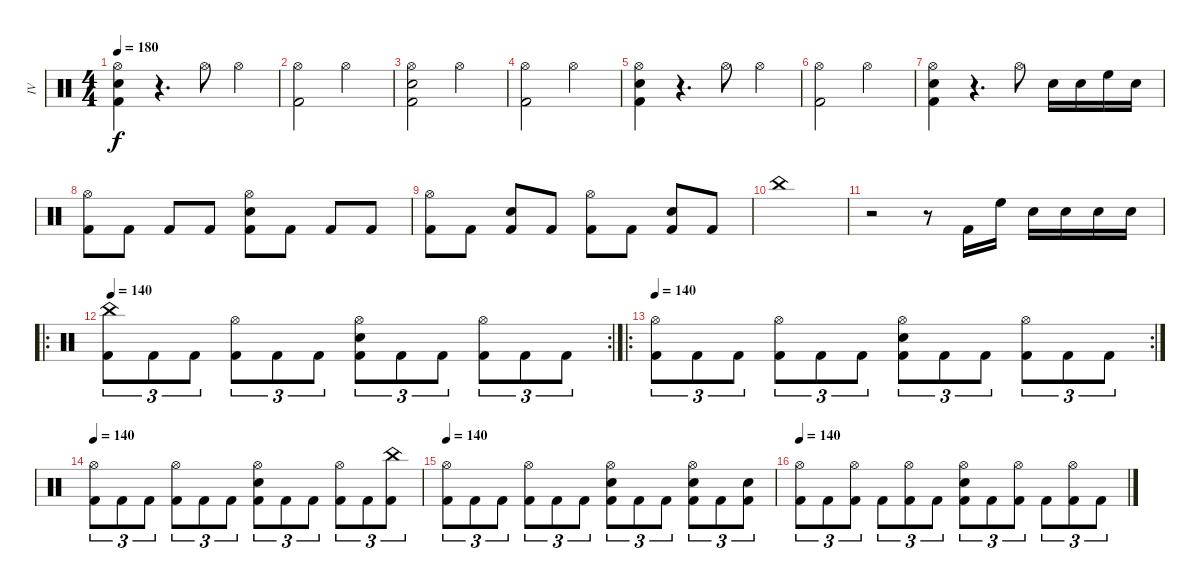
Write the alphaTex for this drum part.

\track ("IV" "IV") {instrument percussion}
\staff {score}
\articulation defaults
\ts (4 4)
\tempo 180
\clef neutral
\ks c
("Hi-Hat (open)" "Snare (hit) 2" "Kick (hit) 2").4{dy f} r.4{d} "Hi-Hat (open)".8 "Hi-Hat (open)".4 |
("Hi-Hat (open)" "Kick (hit) 2").2 "Hi-Hat (open)".2 |
("Hi-Hat (open)" "Snare (hit) 2" "Kick (hit) 2").2 "Hi-Hat (open)".2 |
("Hi-Hat (open)" "Kick (hit) 2").2 "Hi-Hat (open)".2 |
("Hi-Hat (open)" "Snare (hit) 2" "Kick (hit) 2").4 r.4{d} "Hi-Hat (open)".8 "Hi-Hat (open)".4 |
("Hi-Hat (open)" "Kick (hit) 2").2 "Hi-Hat (open)".2 |
("Hi-Hat (open)" "Snare (hit) 2" "Kick (hit) 2").4 r.4{d} "Hi-Hat (open)".8 "Snare (hit) 2".16 "Snare (hit) 2".16 "High Floor Tom (hit)".16 "Snare (hit) 2".16 |
("Hi-Hat (open)" "Kick (hit) 2").8 "Kick (hit) 2".8 "Kick (hit) 2".8 "Kick (hit) 2".8 ("Hi-Hat (open)" "Snare (hit) 2" "Kick (hit) 2").8 "Kick (hit) 2".8 "Kick (hit) 2".8 "Kick (hit) 2".8 |
("Hi-Hat (open)" "Kick (hit) 2").8 "Kick (hit) 2".8 ("Snare (hit) 2" "Kick (hit) 2").8 "Kick (hit) 2".8 ("Hi-Hat (open)" "Kick (hit) 2").8 "Kick (hit) 2".8 ("Snare (hit) 2" "Kick (hit) 2").8 "Kick (hit) 2".8 |
"China (hit)".1 |
r.2 r.8 "Kick (hit) 2".16 "High Floor Tom (hit)".16 "Snare (hit) 2".16 "Snare (hit) 2".16 "Snare (hit) 2".16 "Snare (hit) 2".16 |
\ro
\rc 2
\tempo 140
("China (hit)" "Kick (hit) 2").8{tu (3 2)} "Kick (hit) 2".8{tu (3 2)} "Kick (hit) 2".8{tu (3 2)} ("Hi-Hat (open)" "Kick (hit) 2").8{tu (3 2)} "Kick (hit) 2".8{tu (3 2)} "Kick (hit) 2".8{tu (3 2)} ("Hi-Hat (open)" "Snare (hit) 2" "Kick (hit) 2").8{tu (3 2)} "Kick (hit) 2".8{tu (3 2)} "Kick (hit) 2".8{tu (3 2)} ("Hi-Hat (open)" "Kick (hit) 2").8{tu (3 2)} "Kick (hit) 2".8{tu (3 2)} "Kick (hit) 2".8{tu (3 2)} |
\ro
\rc 2
\tempo 140
("Hi-Hat (open)" "Kick (hit) 2").8{tu (3 2)} "Kick (hit) 2".8{tu (3 2)} "Kick (hit) 2".8{tu (3 2)} ("Hi-Hat (open)" "Kick (hit) 2").8{tu (3 2)} "Kick (hit) 2".8{tu (3 2)} "Kick (hit) 2".8{tu (3 2)} ("Hi-Hat (open)" "Snare (hit) 2" "Kick (hit) 2").8{tu (3 2)} "Kick (hit) 2".8{tu (3 2)} "Kick (hit) 2".8{tu (3 2)} ("Hi-Hat (open)" "Kick (hit) 2").8{tu (3 2)} "Kick (hit) 2".8{tu (3 2)} "Kick (hit) 2".8{tu (3 2)} |
\tempo 140
("Hi-Hat (open)" "Kick (hit) 2").8{tu (3 2)} "Kick (hit) 2".8{tu (3 2)} "Kick (hit) 2".8{tu (3 2)} ("Hi-Hat (open)" "Kick (hit) 2").8{tu (3 2)} "Kick (hit) 2".8{tu (3 2)} "Kick (hit) 2".8{tu (3 2)} ("Hi-Hat (open)" "Snare (hit) 2" "Kick (hit) 2").8{tu (3 2)} "Kick (hit) 2".8{tu (3 2)} "Kick (hit) 2".8{tu (3 2)} ("Hi-Hat (open)" "Kick (hit) 2").8{tu (3 2)} "Kick (hit) 2".8{tu (3 2)} ("China (hit)" "Kick (hit) 2").8{tu (3 2)} |
\tempo 140
("Hi-Hat (open)" "Kick (hit) 2").8{tu (3 2)} "Kick (hit) 2".8{tu (3 2)} "Kick (hit) 2".8{tu (3 2)} ("Hi-Hat (open)" "Kick (hit) 2").8{tu (3 2)} "Kick (hit) 2".8{tu (3 2)} "Kick (hit) 2".8{tu (3 2)} ("Hi-Hat (open)" "Snare (hit) 2" "Kick (hit) 2").8{tu (3 2)} "Kick (hit) 2".8{tu (3 2)} "Kick (hit) 2".8{tu (3 2)} ("Hi-Hat (open)" "Snare (hit) 2" "Kick (hit) 2").8{tu (3 2)} "Kick (hit) 2".8{tu (3 2)} ("Snare (hit) 2" "Kick (hit) 2").8{tu (3 2)} |
\tempo 140
("Hi-Hat (open)" "Kick (hit) 2").8{tu (3 2)} "Kick (hit) 2".8{tu (3 2)} ("Hi-Hat (open)" "Kick (hit) 2").8{tu (3 2)} "Kick (hit) 2".8{tu (3 2)} ("Hi-Hat (open)" "Kick (hit) 2").8{tu (3 2)} "Kick (hit) 2".8{tu (3 2)} ("Hi-Hat (open)" "Snare (hit) 2" "Kick (hit) 2").8{tu (3 2)} "Kick (hit) 2".8{tu (3 2)} ("Hi-Hat (open)" "Kick (hit) 2").8{tu (3 2)} "Kick (hit) 2".8{tu (3 2)} ("Hi-Hat (open)" "Kick (hit) 2").8{tu (3 2)} "Kick (hit) 2".8{tu (3 2)}
